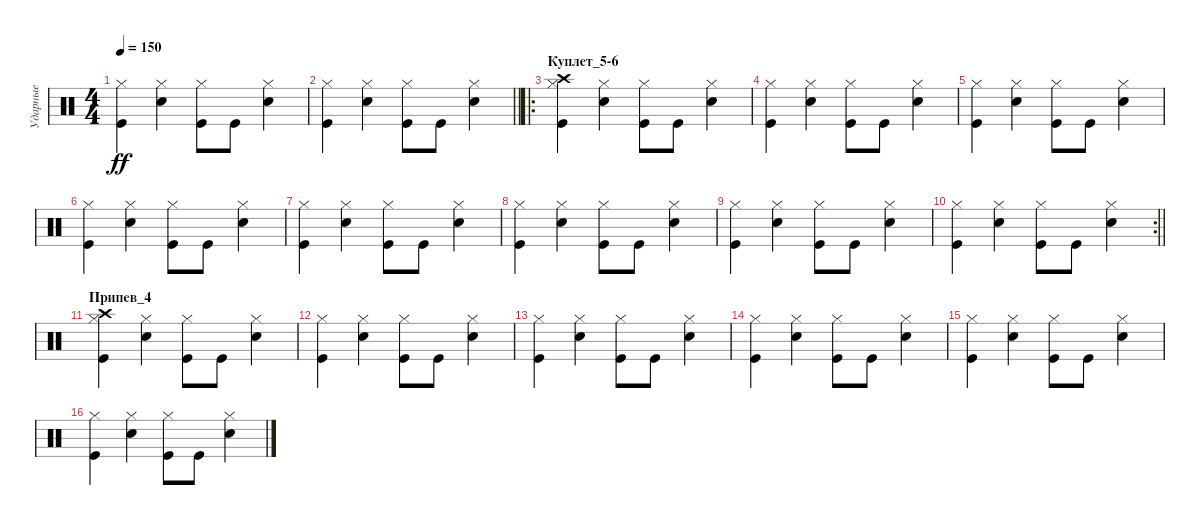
\track ("Ударные" "Ударные") {instrument percussion}
\staff {score}
\articulation defaults
\ts (4 4)
\tempo 150
\clef neutral
\ks c
("Kick (hit)" "Hi-Hat (closed)").4{dy ff} ("Snare (hit) 2" "Hi-Hat (closed)").4 ("Kick (hit)" "Hi-Hat (closed)").8 "Kick (hit)".8 ("Snare (hit) 2" "Hi-Hat (closed)").4 |
\barLineRight lightlight
("Kick (hit)" "Hi-Hat (closed)").4 ("Snare (hit) 2" "Hi-Hat (closed)").4 ("Kick (hit)" "Hi-Hat (closed)").8 "Kick (hit)".8 ("Snare (hit) 2" "Hi-Hat (closed)").4 |
\ro
\section ("" "Куплет_5-6")
("Kick (hit)" "Hi-Hat (closed)" "Crash high (hit)").4 ("Snare (hit) 2" "Hi-Hat (closed)").4 ("Kick (hit)" "Hi-Hat (closed)").8 "Kick (hit)".8 ("Snare (hit) 2" "Hi-Hat (closed)").4 |
("Kick (hit)" "Hi-Hat (closed)").4 ("Snare (hit) 2" "Hi-Hat (closed)").4 ("Kick (hit)" "Hi-Hat (closed)").8 "Kick (hit)".8 ("Snare (hit) 2" "Hi-Hat (closed)").4 |
("Kick (hit)" "Hi-Hat (closed)").4 ("Snare (hit) 2" "Hi-Hat (closed)").4 ("Kick (hit)" "Hi-Hat (closed)").8 "Kick (hit)".8 ("Snare (hit) 2" "Hi-Hat (closed)").4 |
("Kick (hit)" "Hi-Hat (closed)").4 ("Snare (hit) 2" "Hi-Hat (closed)").4 ("Kick (hit)" "Hi-Hat (closed)").8 "Kick (hit)".8 ("Snare (hit) 2" "Hi-Hat (closed)").4 |
("Kick (hit)" "Hi-Hat (closed)").4 ("Snare (hit) 2" "Hi-Hat (closed)").4 ("Kick (hit)" "Hi-Hat (closed)").8 "Kick (hit)".8 ("Snare (hit) 2" "Hi-Hat (closed)").4 |
("Kick (hit)" "Hi-Hat (closed)").4 ("Snare (hit) 2" "Hi-Hat (closed)").4 ("Kick (hit)" "Hi-Hat (closed)").8 "Kick (hit)".8 ("Snare (hit) 2" "Hi-Hat (closed)").4 |
("Kick (hit)" "Hi-Hat (closed)").4 ("Snare (hit) 2" "Hi-Hat (closed)").4 ("Kick (hit)" "Hi-Hat (closed)").8 "Kick (hit)".8 ("Snare (hit) 2" "Hi-Hat (closed)").4 |
\rc 2
\barLineRight lightlight
("Kick (hit)" "Hi-Hat (closed)").4 ("Snare (hit) 2" "Hi-Hat (closed)").4 ("Kick (hit)" "Hi-Hat (closed)").8 "Kick (hit)".8 ("Snare (hit) 2" "Hi-Hat (closed)").4 |
\section ("" "Припев_4")
("Kick (hit)" "Hi-Hat (closed)" "Crash high (hit)").4 ("Snare (hit) 2" "Hi-Hat (closed)").4 ("Kick (hit)" "Hi-Hat (closed)").8 "Kick (hit)".8 ("Snare (hit) 2" "Hi-Hat (closed)").4 |
("Kick (hit)" "Hi-Hat (closed)").4 ("Snare (hit) 2" "Hi-Hat (closed)").4 ("Kick (hit)" "Hi-Hat (closed)").8 "Kick (hit)".8 ("Snare (hit) 2" "Hi-Hat (closed)").4 |
("Kick (hit)" "Hi-Hat (closed)").4 ("Snare (hit) 2" "Hi-Hat (closed)").4 ("Kick (hit)" "Hi-Hat (closed)").8 "Kick (hit)".8 ("Snare (hit) 2" "Hi-Hat (closed)").4 |
("Kick (hit)" "Hi-Hat (closed)").4 ("Snare (hit) 2" "Hi-Hat (closed)").4 ("Kick (hit)" "Hi-Hat (closed)").8 "Kick (hit)".8 ("Snare (hit) 2" "Hi-Hat (closed)").4 |
("Kick (hit)" "Hi-Hat (closed)").4 ("Snare (hit) 2" "Hi-Hat (closed)").4 ("Kick (hit)" "Hi-Hat (closed)").8 "Kick (hit)".8 ("Snare (hit) 2" "Hi-Hat (closed)").4 |
("Kick (hit)" "Hi-Hat (closed)").4 ("Snare (hit) 2" "Hi-Hat (closed)").4 ("Kick (hit)" "Hi-Hat (closed)").8 "Kick (hit)".8 ("Snare (hit) 2" "Hi-Hat (closed)").4
